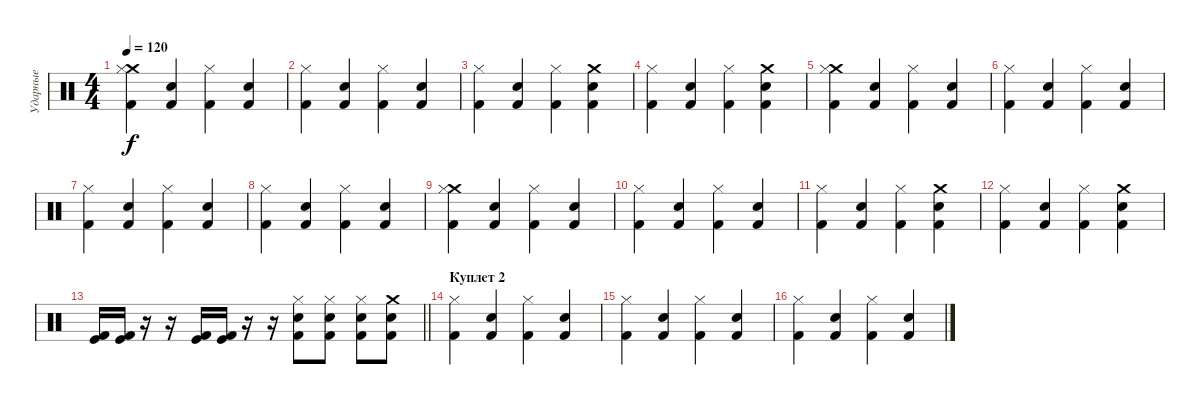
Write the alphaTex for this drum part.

\track ("Ударные" "Ударные") {instrument percussion}
\staff {score}
\articulation defaults
\ts (4 4)
\tempo 120
\clef neutral
\ks c
("Crash medium (hit)" "Hi-Hat (closed)" "Kick (hit) 2").4{dy f} ("Snare (hit) 2" "Kick (hit) 2").4 ("Hi-Hat (closed)" "Kick (hit) 2").4 ("Snare (hit) 2" "Kick (hit) 2").4 |
("Hi-Hat (closed)" "Kick (hit) 2").4 ("Snare (hit) 2" "Kick (hit) 2").4 ("Hi-Hat (closed)" "Kick (hit) 2").4 ("Snare (hit) 2" "Kick (hit) 2").4 |
("Hi-Hat (closed)" "Kick (hit) 2").4 ("Snare (hit) 2" "Kick (hit) 2").4 ("Hi-Hat (closed)" "Kick (hit) 2").4 ("Crash medium (hit)" "Snare (hit) 2" "Kick (hit) 2").4 |
("Hi-Hat (closed)" "Kick (hit) 2").4 ("Snare (hit) 2" "Kick (hit) 2").4 ("Hi-Hat (closed)" "Kick (hit) 2").4 ("Crash medium (hit)" "Snare (hit) 2" "Kick (hit) 2").4 |
("Crash medium (hit)" "Hi-Hat (closed)" "Kick (hit) 2").4 ("Snare (hit) 2" "Kick (hit) 2").4 ("Hi-Hat (closed)" "Kick (hit) 2").4 ("Snare (hit) 2" "Kick (hit) 2").4 |
("Hi-Hat (closed)" "Kick (hit) 2").4 ("Snare (hit) 2" "Kick (hit) 2").4 ("Hi-Hat (closed)" "Kick (hit) 2").4 ("Snare (hit) 2" "Kick (hit) 2").4 |
("Hi-Hat (closed)" "Kick (hit) 2").4 ("Snare (hit) 2" "Kick (hit) 2").4 ("Hi-Hat (closed)" "Kick (hit) 2").4 ("Snare (hit) 2" "Kick (hit) 2").4 |
("Hi-Hat (closed)" "Kick (hit) 2").4 ("Snare (hit) 2" "Kick (hit) 2").4 ("Hi-Hat (closed)" "Kick (hit) 2").4 ("Snare (hit) 2" "Kick (hit) 2").4 |
("Crash medium (hit)" "Hi-Hat (closed)" "Kick (hit) 2").4 ("Snare (hit) 2" "Kick (hit) 2").4 ("Hi-Hat (closed)" "Kick (hit) 2").4 ("Snare (hit) 2" "Kick (hit) 2").4 |
("Hi-Hat (closed)" "Kick (hit) 2").4 ("Snare (hit) 2" "Kick (hit) 2").4 ("Hi-Hat (closed)" "Kick (hit) 2").4 ("Snare (hit) 2" "Kick (hit) 2").4 |
("Hi-Hat (closed)" "Kick (hit) 2").4 ("Snare (hit) 2" "Kick (hit) 2").4 ("Hi-Hat (closed)" "Kick (hit) 2").4 ("Crash medium (hit)" "Snare (hit) 2" "Kick (hit) 2").4 |
("Hi-Hat (closed)" "Kick (hit) 2").4 ("Snare (hit) 2" "Kick (hit) 2").4 ("Hi-Hat (closed)" "Kick (hit) 2").4 ("Crash medium (hit)" "Snare (hit) 2" "Kick (hit) 2").4 |
\barLineRight lightlight
("Kick (hit)" "Kick (hit) 2").16 ("Kick (hit)" "Kick (hit) 2").16 r.16 r.16 ("Kick (hit)" "Kick (hit) 2").16 ("Kick (hit)" "Kick (hit) 2").16 r.16 r.16 ("Hi-Hat (closed)" "Snare (hit) 2" "Kick (hit) 2").8 ("Hi-Hat (closed)" "Snare (hit) 2" "Kick (hit) 2").8 ("Hi-Hat (closed)" "Snare (hit) 2" "Kick (hit) 2").8 ("Crash medium (hit)" "Snare (hit) 2" "Kick (hit) 2").8 |
\section ("" "Куплет 2")
("Hi-Hat (closed)" "Kick (hit) 2").4 ("Snare (hit) 2" "Kick (hit) 2").4 ("Hi-Hat (closed)" "Kick (hit) 2").4 ("Snare (hit) 2" "Kick (hit) 2").4 |
("Hi-Hat (closed)" "Kick (hit) 2").4 ("Snare (hit) 2" "Kick (hit) 2").4 ("Hi-Hat (closed)" "Kick (hit) 2").4 ("Snare (hit) 2" "Kick (hit) 2").4 |
("Hi-Hat (closed)" "Kick (hit) 2").4 ("Snare (hit) 2" "Kick (hit) 2").4 ("Hi-Hat (closed)" "Kick (hit) 2").4 ("Snare (hit) 2" "Kick (hit) 2").4
